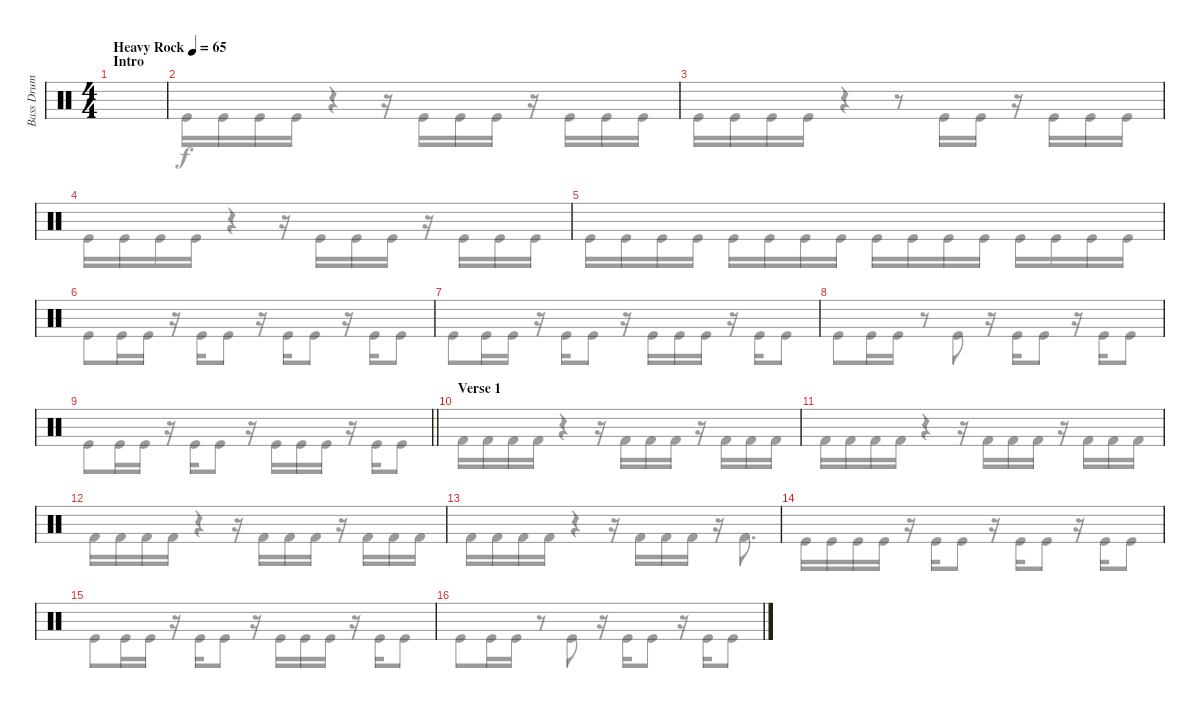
\track ("Bass Drum" "Bass Drum") {instrument percussion}
\staff {score}
\articulation defaults
\voice
\ts (4 4)
\section ("" "Intro")
\tempo (65 "Heavy Rock")
\clef neutral
\ks c
|
|
|
|
|
|
|
|
\barLineRight lightlight
|
\section ("" "Verse 1")
|
|
|
|
|
|
\voice
\clef neutral
\ks c
|
"Kick (hit)".16 "Kick (hit)".16 "Kick (hit)".16 "Kick (hit)".16 r.4 r.16 "Kick (hit)".16 "Kick (hit)".16 "Kick (hit)".16 r.16 "Kick (hit)".16 "Kick (hit)".16 "Kick (hit)".16 |
"Kick (hit)".16 "Kick (hit)".16 "Kick (hit)".16 "Kick (hit)".16 r.4 r.8 "Kick (hit)".16 "Kick (hit)".16 r.16 "Kick (hit)".16 "Kick (hit)".16 "Kick (hit)".16 |
"Kick (hit)".16 "Kick (hit)".16 "Kick (hit)".16 "Kick (hit)".16 r.4 r.16 "Kick (hit)".16 "Kick (hit)".16 "Kick (hit)".16 r.16 "Kick (hit)".16 "Kick (hit)".16 "Kick (hit)".16 |
"Kick (hit)".16 "Kick (hit)".16 "Kick (hit)".16 "Kick (hit)".16 "Kick (hit)".16 "Kick (hit)".16 "Kick (hit)".16 "Kick (hit)".16 "Kick (hit)".16 "Kick (hit)".16 "Kick (hit)".16 "Kick (hit)".16 "Kick (hit)".16 "Kick (hit)".16 "Kick (hit)".16 "Kick (hit)".16 |
"Kick (hit)".8 "Kick (hit)".16 "Kick (hit)".16 r.16 "Kick (hit)".16 "Kick (hit)".8 r.16 "Kick (hit)".16 "Kick (hit)".8 r.16 "Kick (hit)".16 "Kick (hit)".8 |
"Kick (hit)".8 "Kick (hit)".16 "Kick (hit)".16 r.16 "Kick (hit)".16 "Kick (hit)".8 r.16 "Kick (hit)".16 "Kick (hit)".16 "Kick (hit)".16 r.16 "Kick (hit)".16 "Kick (hit)".8 |
"Kick (hit)".8 "Kick (hit)".16 "Kick (hit)".16 r.8 "Kick (hit)".8 r.16 "Kick (hit)".16 "Kick (hit)".8 r.16 "Kick (hit)".16 "Kick (hit)".8 |
\barLineRight lightlight "Kick (hit)".8 "Kick (hit)".16 "Kick (hit)".16
r.16 "Kick (hit)".16 "Kick (hit)".8 r.16 "Kick (hit)".16 "Kick (hit)".16 "Kick (hit)".16 r.16 "Kick (hit)".16 "Kick (hit)".8 |
"Kick (hit) 2".16 "Kick (hit) 2".16 "Kick (hit) 2".16 "Kick (hit) 2".16 r.4 r.16 "Kick (hit) 2".16 "Kick (hit) 2".16 "Kick (hit) 2".16 r.16 "Kick (hit) 2".16 "Kick (hit) 2".16 "Kick (hit) 2".16 |
"Kick (hit) 2".16 "Kick (hit) 2".16 "Kick (hit) 2".16 "Kick (hit) 2".16 r.4 r.16 "Kick (hit) 2".16 "Kick (hit) 2".16 "Kick (hit) 2".16 r.16 "Kick (hit) 2".16 "Kick (hit) 2".16 "Kick (hit) 2".16 |
"Kick (hit) 2".16 "Kick (hit) 2".16 "Kick (hit) 2".16 "Kick (hit) 2".16 r.4 r.16 "Kick (hit) 2".16 "Kick (hit) 2".16 "Kick (hit) 2".16 r.16 "Kick (hit) 2".16 "Kick (hit) 2".16 "Kick (hit) 2".16 |
"Kick (hit) 2".16 "Kick (hit) 2".16 "Kick (hit) 2".16 "Kick (hit) 2".16 r.4 r.16 "Kick (hit) 2".16 "Kick (hit) 2".16 "Kick (hit) 2".16 r.16 "Kick (hit) 2".8{d} |
"Kick (hit)".16 "Kick (hit)".16 "Kick (hit)".16 "Kick (hit)".16 r.16 "Kick (hit)".16 "Kick (hit)".8 r.16 "Kick (hit)".16 "Kick (hit)".8 r.16 "Kick (hit)".16 "Kick (hit)".8 |
"Kick (hit)".8 "Kick (hit)".16 "Kick (hit)".16 r.16 "Kick (hit)".16 "Kick (hit)".8 r.16 "Kick (hit)".16 "Kick (hit)".16 "Kick (hit)".16 r.16 "Kick (hit)".16 "Kick (hit)".8 |
"Kick (hit)".8 "Kick (hit)".16 "Kick (hit)".16 r.8 "Kick (hit)".8 r.16 "Kick (hit)".16 "Kick (hit)".8 r.16 "Kick (hit)".16 "Kick (hit)".8
